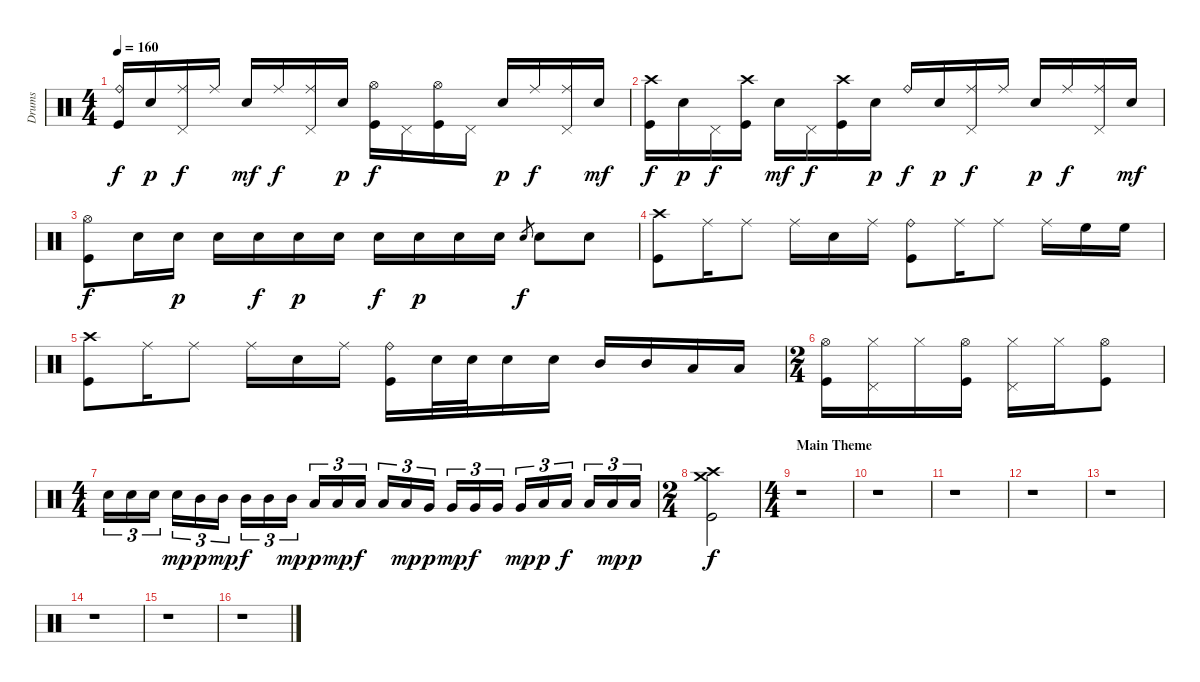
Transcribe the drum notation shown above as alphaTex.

\track ("Drums" "Drums") {instrument percussion}
\staff {score}
\articulation defaults
\ts (4 4)
\tempo 160
\clef neutral
\ks c
("Ride (bell)" "Kick (hit)").16{dy f} "Electric Snare (hit)".16{dy p} ("Ride (middle)" "Pedal Hi-Hat (hit)").16{dy f} "Ride (middle)".16 "Electric Snare (hit)".16{dy mf} "Ride (middle)".16{dy f} ("Ride (middle)" "Pedal Hi-Hat (hit)").16 "Electric Snare (hit)".16{dy p} ("Hi-Hat (open)" "Kick (hit)").16{dy f} "Pedal Hi-Hat (hit)".16 ("Hi-Hat (open)" "Kick (hit)").16 "Pedal Hi-Hat (hit)".16 "Electric Snare (hit)".16{dy p} "Ride (middle)".16{dy f} ("Ride (middle)" "Pedal Hi-Hat (hit)").16 "Electric Snare (hit)".16{dy mf} |
("Crash high (hit)" "Kick (hit)").16{dy f} "Electric Snare (hit)".16{dy p} "Pedal Hi-Hat (hit)".16{dy f} ("Crash high (hit)" "Kick (hit)").16 "Electric Snare (hit)".16{dy mf} "Pedal Hi-Hat (hit)".16{dy f} ("Crash high (hit)" "Kick (hit)").16 "Electric Snare (hit)".16{dy p} "Ride (bell)".16{dy f} "Electric Snare (hit)".16{dy p} ("Ride (middle)" "Pedal Hi-Hat (hit)").16{dy f} "Ride (middle)".16 "Electric Snare (hit)".16{dy p} "Ride (middle)".16{dy f} ("Ride (middle)" "Pedal Hi-Hat (hit)").16 "Electric Snare (hit)".16{dy mf} |
("Hi-Hat (open)" "Kick (hit)").8{dy f} "Electric Snare (hit)".16 "Electric Snare (hit)".16{dy p} "Electric Snare (hit)".16 "Electric Snare (hit)".16{dy f} "Electric Snare (hit)".16{dy p} "Electric Snare (hit)".16 "Electric Snare (hit)".16{dy f} "Electric Snare (hit)".16{dy p} "Electric Snare (hit)".16 "Electric Snare (hit)".16 "Electric Snare (hit)".8{gr dy f} "Electric Snare (hit)".8 "Electric Snare (hit)".8 |
("Crash high (hit)" "Kick (hit)").8 "Ride (middle)".16 "Ride (middle)".8 "Ride (middle)".16 "Electric Snare (hit)".16 "Ride (middle)".16 ("Ride (bell)" "Kick (hit)").8 "Ride (middle)".16 "Ride (middle)".8 "Ride (middle)".16 "High Floor Tom (hit)".16 "High Floor Tom (hit)".16 |
("Crash high (hit)" "Kick (hit)").8 "Ride (middle)".16 "Ride (middle)".8 "Ride (middle)".16 "Electric Snare (hit)".16 "Ride (middle)".16 ("Ride (bell)" "Kick (hit)").16 "Electric Snare (hit)".32 "Electric Snare (hit)".32 "Electric Snare (hit)".16 "Electric Snare (hit)".16 "Mid Tom (hit)".16 "Mid Tom (hit)".16 "Low Tom (hit)".16 "Low Tom (hit)".16 |
\ts (2 4)
("Hi-Hat (open)" "Kick (hit)").16 ("Hi-Hat (closed)" "Pedal Hi-Hat (hit)").16 "Hi-Hat (closed)".16 ("Hi-Hat (open)" "Kick (hit)").16 ("Hi-Hat (closed)" "Pedal Hi-Hat (hit)").16 "Hi-Hat (closed)".16 ("Hi-Hat (open)" "Kick (hit)").8 |
\ts (4 4)
"Electric Snare (hit)".16{tu (3 2)} "Electric Snare (hit)".16{tu (3 2)} "Electric Snare (hit)".16{tu (3 2)} "Electric Snare (hit)".16{tu (3 2) dy mp} "Mid Tom (hit)".16{tu (3 2) dy p} "Mid Tom (hit)".16{tu (3 2) dy mp} "Mid Tom (hit)".16{tu (3 2) dy f} "Mid Tom (hit)".16{tu (3 2)} "Mid Tom (hit)".16{tu (3 2) dy mp} "Low Tom (hit)".16{tu (3 2) dy p} "Low Tom (hit)".16{tu (3 2) dy mp} "Low Tom (hit)".16{tu (3 2) dy f} "Low Tom (hit)".16{tu (3 2)} "Low Tom (hit)".16{tu (3 2) dy mp} "Very Low Tom (hit)".16{tu (3 2) dy p} "Very Low Tom (hit)".16{tu (3 2) dy mp} "Very Low Tom (hit)".16{tu (3 2) dy f} "Very Low Tom (hit)".16{tu (3 2)} "Very Low Tom (hit)".16{tu (3 2) dy mp} "Low Floor Tom (hit)".16{tu (3 2) dy p} "Low Floor Tom (hit)".16{tu (3 2) dy f} "Low Floor Tom (hit)".16{tu (3 2)} "Low Floor Tom (hit)".16{tu (3 2) dy mp} "Low Floor Tom (hit)".16{tu (3 2) dy p} |
\ts (2 4)
("Crash high (hit)" "Crash medium (hit)" "Kick (hit)").2{dy f} |
\ts (4 4)
\section ("" "Main Theme")
r.1 |
r.1 |
r.1 |
r.1 |
r.1 |
r.1 |
r.1 |
r.1
